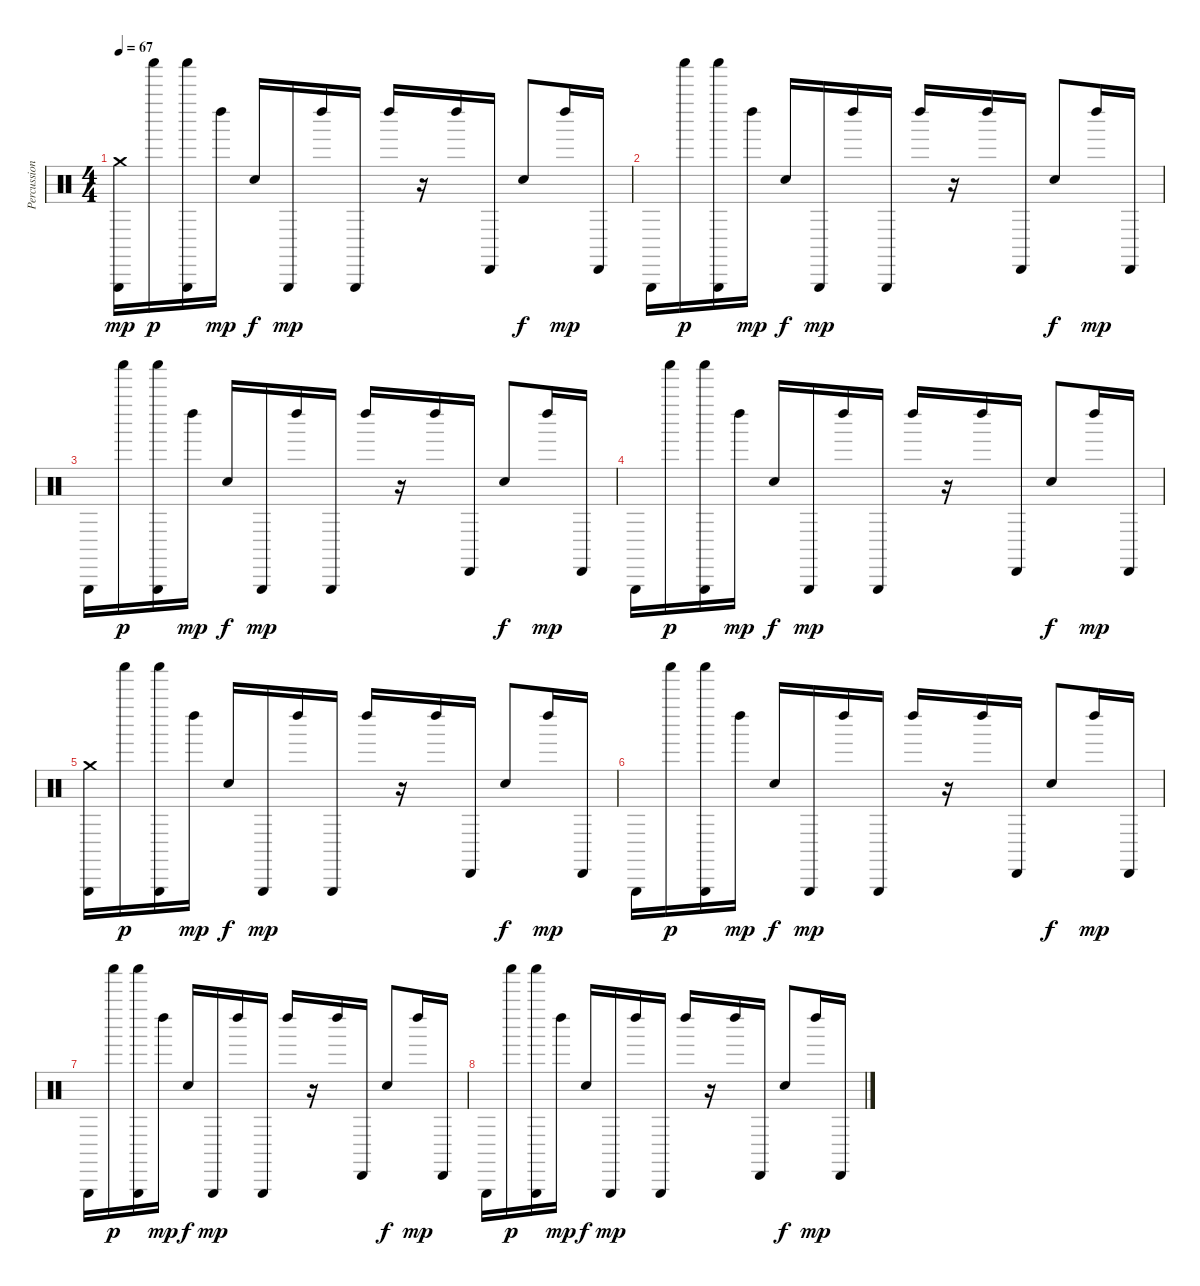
\track ("Percussion" "Percussion") {instrument percussion}
\staff {score}
\articulation defaults
\ts (4 4)
\tempo 67
\clef neutral
\ks c
("Crash medium (hit)" "Triangle (hit)").16{dy mp} "Shaker (hit)".16{dy p} ("Triangle (hit)" "Shaker (hit)").16 "Left Maraca (hit)".16{dy mp} "Snare (hit) 2".16{dy f} "Triangle (hit)".16{dy mp} "Left Maraca (hit)".16 "Triangle (hit)".16 "Left Maraca (hit)".16 r.16 "Left Maraca (hit)".16 "Cabasa (hit)".16 "Snare (hit) 2".8{dy f} "Left Maraca (hit)".16{dy mp} "Cabasa (hit)".16 |
"Triangle (hit)".16 "Shaker (hit)".16{dy p} ("Triangle (hit)" "Shaker (hit)").16 "Left Maraca (hit)".16{dy mp} "Snare (hit) 2".16{dy f} "Triangle (hit)".16{dy mp} "Left Maraca (hit)".16 "Triangle (hit)".16 "Left Maraca (hit)".16 r.16 "Left Maraca (hit)".16 "Cabasa (hit)".16 "Snare (hit) 2".8{dy f} "Left Maraca (hit)".16{dy mp} "Cabasa (hit)".16 |
"Triangle (hit)".16 "Shaker (hit)".16{dy p} ("Triangle (hit)" "Shaker (hit)").16 "Left Maraca (hit)".16{dy mp} "Snare (hit) 2".16{dy f} "Triangle (hit)".16{dy mp} "Left Maraca (hit)".16 "Triangle (hit)".16 "Left Maraca (hit)".16 r.16 "Left Maraca (hit)".16 "Cabasa (hit)".16 "Snare (hit) 2".8{dy f} "Left Maraca (hit)".16{dy mp} "Cabasa (hit)".16 |
"Triangle (hit)".16 "Shaker (hit)".16{dy p} ("Triangle (hit)" "Shaker (hit)").16 "Left Maraca (hit)".16{dy mp} "Snare (hit) 2".16{dy f} "Triangle (hit)".16{dy mp} "Left Maraca (hit)".16 "Triangle (hit)".16 "Left Maraca (hit)".16 r.16 "Left Maraca (hit)".16 "Cabasa (hit)".16 "Snare (hit) 2".8{dy f} "Left Maraca (hit)".16{dy mp} "Cabasa (hit)".16 |
("Triangle (hit)" "Crash medium (hit)").16 "Shaker (hit)".16{dy p} ("Triangle (hit)" "Shaker (hit)").16 "Left Maraca (hit)".16{dy mp} "Snare (hit) 2".16{dy f} "Triangle (hit)".16{dy mp} "Left Maraca (hit)".16 "Triangle (hit)".16 "Left Maraca (hit)".16 r.16 "Left Maraca (hit)".16 "Cabasa (hit)".16 "Snare (hit) 2".8{dy f} "Left Maraca (hit)".16{dy mp} "Cabasa (hit)".16 |
"Triangle (hit)".16 "Shaker (hit)".16{dy p} ("Triangle (hit)" "Shaker (hit)").16 "Left Maraca (hit)".16{dy mp} "Snare (hit) 2".16{dy f} "Triangle (hit)".16{dy mp} "Left Maraca (hit)".16 "Triangle (hit)".16 "Left Maraca (hit)".16 r.16 "Left Maraca (hit)".16 "Cabasa (hit)".16 "Snare (hit) 2".8{dy f} "Left Maraca (hit)".16{dy mp} "Cabasa (hit)".16 |
"Triangle (hit)".16 "Shaker (hit)".16{dy p} ("Triangle (hit)" "Shaker (hit)").16 "Left Maraca (hit)".16{dy mp} "Snare (hit) 2".16{dy f} "Triangle (hit)".16{dy mp} "Left Maraca (hit)".16 "Triangle (hit)".16 "Left Maraca (hit)".16 r.16 "Left Maraca (hit)".16 "Cabasa (hit)".16 "Snare (hit) 2".8{dy f} "Left Maraca (hit)".16{dy mp} "Cabasa (hit)".16 |
"Triangle (hit)".16 "Shaker (hit)".16{dy p} ("Triangle (hit)" "Shaker (hit)").16 "Left Maraca (hit)".16{dy mp} "Snare (hit) 2".16{dy f} "Triangle (hit)".16{dy mp} "Left Maraca (hit)".16 "Triangle (hit)".16 "Left Maraca (hit)".16 r.16 "Left Maraca (hit)".16 "Cabasa (hit)".16 "Snare (hit) 2".8{dy f} "Left Maraca (hit)".16{dy mp} "Cabasa (hit)".16
